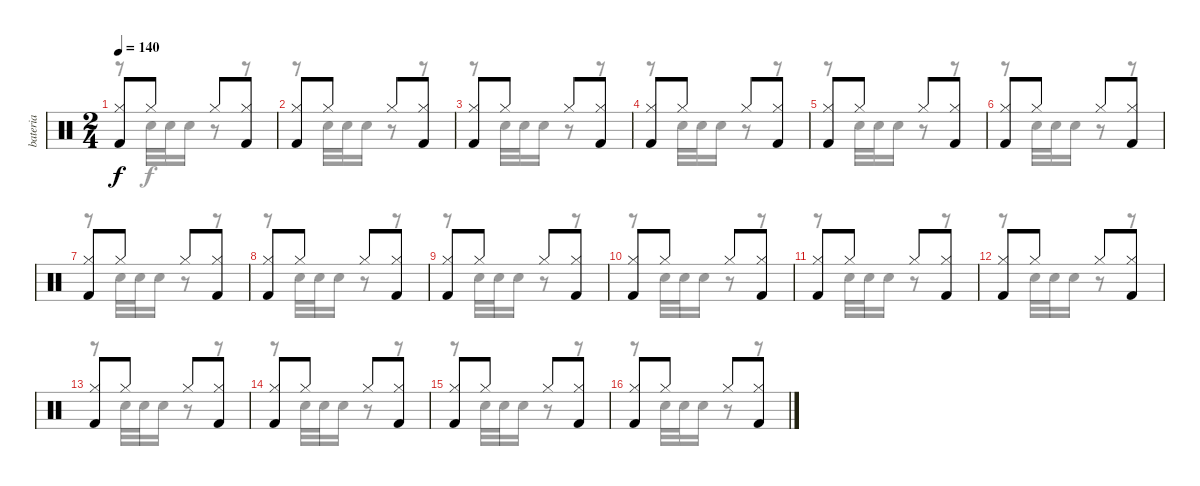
\track ("bateria" "bateria") {instrument percussion}
\staff {score}
\articulation defaults
\voice
\ts (2 4)
\tempo 140
\clef neutral
\ks c
("Hi-Hat (closed)" "Kick (hit) 2").8{dy f} "Hi-Hat (closed)".8 "Hi-Hat (closed)".8 ("Hi-Hat (closed)" "Kick (hit) 2").8 |
("Hi-Hat (closed)" "Kick (hit) 2").8 "Hi-Hat (closed)".8 "Hi-Hat (closed)".8 ("Hi-Hat (closed)" "Kick (hit) 2").8 |
("Hi-Hat (closed)" "Kick (hit) 2").8 "Hi-Hat (closed)".8 "Hi-Hat (closed)".8 ("Hi-Hat (closed)" "Kick (hit) 2").8 |
("Hi-Hat (closed)" "Kick (hit) 2").8 "Hi-Hat (closed)".8 "Hi-Hat (closed)".8 ("Hi-Hat (closed)" "Kick (hit) 2").8 |
("Hi-Hat (closed)" "Kick (hit) 2").8 "Hi-Hat (closed)".8 "Hi-Hat (closed)".8 ("Hi-Hat (closed)" "Kick (hit) 2").8 |
("Hi-Hat (closed)" "Kick (hit) 2").8 "Hi-Hat (closed)".8 "Hi-Hat (closed)".8 ("Hi-Hat (closed)" "Kick (hit) 2").8 |
("Hi-Hat (closed)" "Kick (hit) 2").8 "Hi-Hat (closed)".8 "Hi-Hat (closed)".8 ("Hi-Hat (closed)" "Kick (hit) 2").8 |
("Hi-Hat (closed)" "Kick (hit) 2").8 "Hi-Hat (closed)".8 "Hi-Hat (closed)".8 ("Hi-Hat (closed)" "Kick (hit) 2").8 |
("Hi-Hat (closed)" "Kick (hit) 2").8 "Hi-Hat (closed)".8 "Hi-Hat (closed)".8 ("Hi-Hat (closed)" "Kick (hit) 2").8 |
("Hi-Hat (closed)" "Kick (hit) 2").8 "Hi-Hat (closed)".8 "Hi-Hat (closed)".8 ("Hi-Hat (closed)" "Kick (hit) 2").8 |
("Hi-Hat (closed)" "Kick (hit) 2").8 "Hi-Hat (closed)".8 "Hi-Hat (closed)".8 ("Hi-Hat (closed)" "Kick (hit) 2").8 |
("Hi-Hat (closed)" "Kick (hit) 2").8 "Hi-Hat (closed)".8 "Hi-Hat (closed)".8 ("Hi-Hat (closed)" "Kick (hit) 2").8 |
("Hi-Hat (closed)" "Kick (hit) 2").8 "Hi-Hat (closed)".8 "Hi-Hat (closed)".8 ("Hi-Hat (closed)" "Kick (hit) 2").8 |
("Hi-Hat (closed)" "Kick (hit) 2").8 "Hi-Hat (closed)".8 "Hi-Hat (closed)".8 ("Hi-Hat (closed)" "Kick (hit) 2").8 |
("Hi-Hat (closed)" "Kick (hit) 2").8 "Hi-Hat (closed)".8 "Hi-Hat (closed)".8 ("Hi-Hat (closed)" "Kick (hit) 2").8 |
("Hi-Hat (closed)" "Kick (hit) 2").8 "Hi-Hat (closed)".8 "Hi-Hat (closed)".8 ("Hi-Hat (closed)" "Kick (hit) 2").8
\voice
\clef neutral
\ottava regular
\simile none
\ks c
r.8{dy f} "Snare (hit) 2".32 "Snare (hit) 2".32 "Snare (hit) 2".16 r.8 r.8 |
r.8 "Snare (hit) 2".32 "Snare (hit) 2".32 "Snare (hit) 2".16 r.8 r.8 |
r.8 "Snare (hit) 2".32 "Snare (hit) 2".32 "Snare (hit) 2".16 r.8 r.8 |
r.8 "Snare (hit) 2".32 "Snare (hit) 2".32 "Snare (hit) 2".16 r.8 r.8 |
r.8 "Snare (hit) 2".32 "Snare (hit) 2".32 "Snare (hit) 2".16 r.8 r.8 |
r.8 "Snare (hit) 2".32 "Snare (hit) 2".32 "Snare (hit) 2".16 r.8 r.8 |
r.8 "Snare (hit) 2".32 "Snare (hit) 2".32 "Snare (hit) 2".16 r.8 r.8 |
r.8 "Snare (hit) 2".32 "Snare (hit) 2".32 "Snare (hit) 2".16 r.8 r.8 |
r.8 "Snare (hit) 2".32 "Snare (hit) 2".32 "Snare (hit) 2".16 r.8 r.8 |
r.8 "Snare (hit) 2".32 "Snare (hit) 2".32 "Snare (hit) 2".16 r.8 r.8 |
r.8 "Snare (hit) 2".32 "Snare (hit) 2".32 "Snare (hit) 2".16 r.8 r.8 |
r.8 "Snare (hit) 2".32 "Snare (hit) 2".32 "Snare (hit) 2".16 r.8 r.8 |
r.8 "Snare (hit) 2".32 "Snare (hit) 2".32 "Snare (hit) 2".16 r.8 r.8 |
r.8 "Snare (hit) 2".32 "Snare (hit) 2".32 "Snare (hit) 2".16 r.8 r.8 |
r.8 "Snare (hit) 2".32 "Snare (hit) 2".32 "Snare (hit) 2".16 r.8 r.8 |
r.8 "Snare (hit) 2".32 "Snare (hit) 2".32 "Snare (hit) 2".16 r.8 r.8
